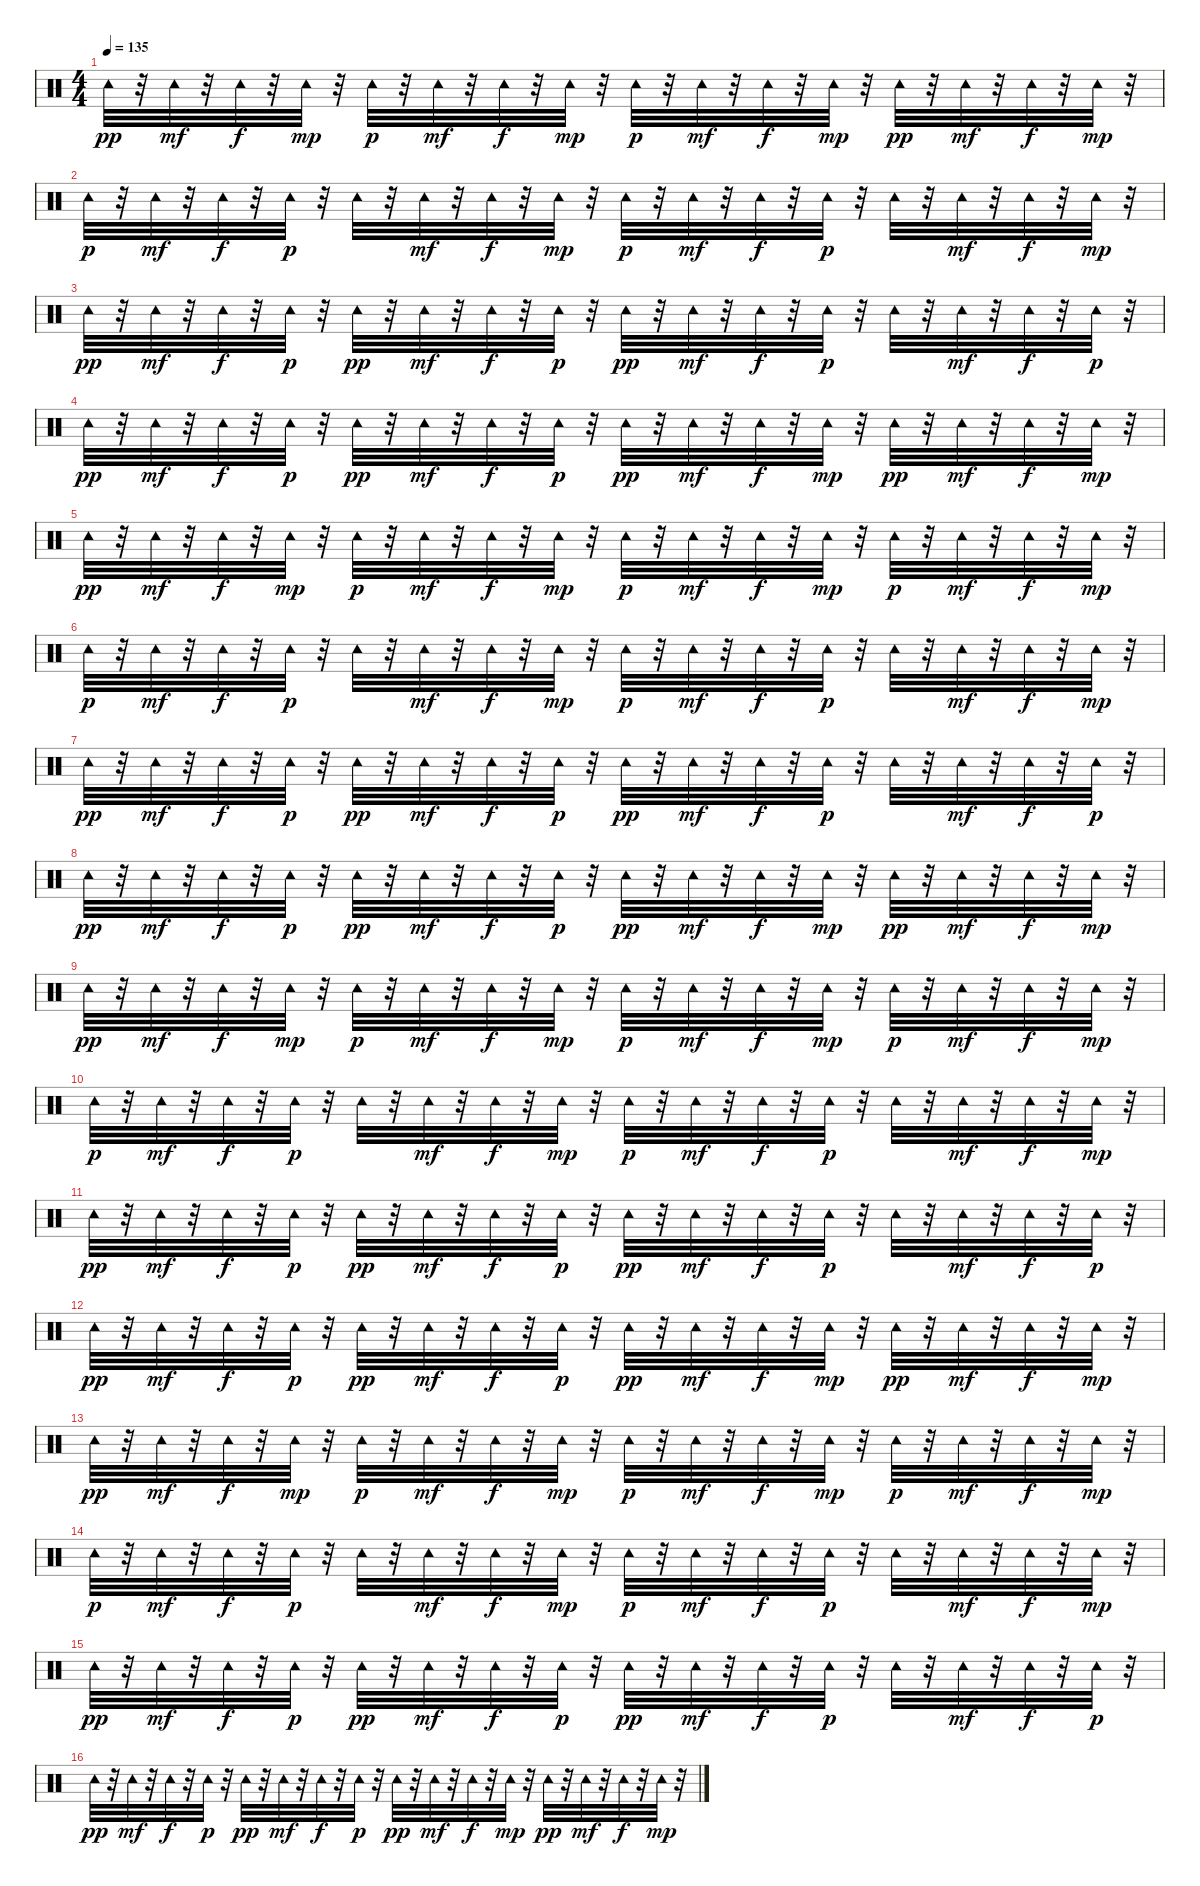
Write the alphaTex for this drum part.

\track "" {instrument percussion}
\staff {score}
\articulation defaults
\ts (4 4)
\tempo 135
\clef neutral
\ks c "Tambourine (hit)".32{dy pp}
r.32 "Tambourine (hit)".32{dy mf} r.32 "Tambourine (hit)".32{dy f} r.32 "Tambourine (hit)".32{dy mp} r.32 "Tambourine (hit)".32{dy p} r.32 "Tambourine (hit)".32{dy mf} r.32 "Tambourine (hit)".32{dy f} r.32 "Tambourine (hit)".32{dy mp} r.32 "Tambourine (hit)".32{dy p} r.32 "Tambourine (hit)".32{dy mf} r.32 "Tambourine (hit)".32{dy f} r.32 "Tambourine (hit)".32{dy mp} r.32 "Tambourine (hit)".32{dy pp} r.32 "Tambourine (hit)".32{dy mf} r.32 "Tambourine (hit)".32{dy f} r.32 "Tambourine (hit)".32{dy mp} r.32 |
"Tambourine (hit)".32{dy p} r.32 "Tambourine (hit)".32{dy mf} r.32 "Tambourine (hit)".32{dy f} r.32 "Tambourine (hit)".32{dy p} r.32 "Tambourine (hit)".32 r.32 "Tambourine (hit)".32{dy mf} r.32 "Tambourine (hit)".32{dy f} r.32 "Tambourine (hit)".32{dy mp} r.32 "Tambourine (hit)".32{dy p} r.32 "Tambourine (hit)".32{dy mf} r.32 "Tambourine (hit)".32{dy f} r.32 "Tambourine (hit)".32{dy p} r.32 "Tambourine (hit)".32 r.32 "Tambourine (hit)".32{dy mf} r.32 "Tambourine (hit)".32{dy f} r.32 "Tambourine (hit)".32{dy mp} r.32 |
"Tambourine (hit)".32{dy pp} r.32 "Tambourine (hit)".32{dy mf} r.32 "Tambourine (hit)".32{dy f} r.32 "Tambourine (hit)".32{dy p} r.32 "Tambourine (hit)".32{dy pp} r.32 "Tambourine (hit)".32{dy mf} r.32 "Tambourine (hit)".32{dy f} r.32 "Tambourine (hit)".32{dy p} r.32 "Tambourine (hit)".32{dy pp} r.32 "Tambourine (hit)".32{dy mf} r.32 "Tambourine (hit)".32{dy f} r.32 "Tambourine (hit)".32{dy p} r.32 "Tambourine (hit)".32 r.32 "Tambourine (hit)".32{dy mf} r.32 "Tambourine (hit)".32{dy f} r.32 "Tambourine (hit)".32{dy p} r.32 |
"Tambourine (hit)".32{dy pp} r.32 "Tambourine (hit)".32{dy mf} r.32 "Tambourine (hit)".32{dy f} r.32 "Tambourine (hit)".32{dy p} r.32 "Tambourine (hit)".32{dy pp} r.32 "Tambourine (hit)".32{dy mf} r.32 "Tambourine (hit)".32{dy f} r.32 "Tambourine (hit)".32{dy p} r.32 "Tambourine (hit)".32{dy pp} r.32 "Tambourine (hit)".32{dy mf} r.32 "Tambourine (hit)".32{dy f} r.32 "Tambourine (hit)".32{dy mp} r.32 "Tambourine (hit)".32{dy pp} r.32 "Tambourine (hit)".32{dy mf} r.32 "Tambourine (hit)".32{dy f} r.32 "Tambourine (hit)".32{dy mp} r.32 |
"Tambourine (hit)".32{dy pp} r.32 "Tambourine (hit)".32{dy mf} r.32 "Tambourine (hit)".32{dy f} r.32 "Tambourine (hit)".32{dy mp} r.32 "Tambourine (hit)".32{dy p} r.32 "Tambourine (hit)".32{dy mf} r.32 "Tambourine (hit)".32{dy f} r.32 "Tambourine (hit)".32{dy mp} r.32 "Tambourine (hit)".32{dy p} r.32 "Tambourine (hit)".32{dy mf} r.32 "Tambourine (hit)".32{dy f} r.32 "Tambourine (hit)".32{dy mp} r.32 "Tambourine (hit)".32{dy p} r.32 "Tambourine (hit)".32{dy mf} r.32 "Tambourine (hit)".32{dy f} r.32 "Tambourine (hit)".32{dy mp} r.32 |
"Tambourine (hit)".32{dy p} r.32 "Tambourine (hit)".32{dy mf} r.32 "Tambourine (hit)".32{dy f} r.32 "Tambourine (hit)".32{dy p} r.32 "Tambourine (hit)".32 r.32 "Tambourine (hit)".32{dy mf} r.32 "Tambourine (hit)".32{dy f} r.32 "Tambourine (hit)".32{dy mp} r.32 "Tambourine (hit)".32{dy p} r.32 "Tambourine (hit)".32{dy mf} r.32 "Tambourine (hit)".32{dy f} r.32 "Tambourine (hit)".32{dy p} r.32 "Tambourine (hit)".32 r.32 "Tambourine (hit)".32{dy mf} r.32 "Tambourine (hit)".32{dy f} r.32 "Tambourine (hit)".32{dy mp} r.32 |
"Tambourine (hit)".32{dy pp} r.32 "Tambourine (hit)".32{dy mf} r.32 "Tambourine (hit)".32{dy f} r.32 "Tambourine (hit)".32{dy p} r.32 "Tambourine (hit)".32{dy pp} r.32 "Tambourine (hit)".32{dy mf} r.32 "Tambourine (hit)".32{dy f} r.32 "Tambourine (hit)".32{dy p} r.32 "Tambourine (hit)".32{dy pp} r.32 "Tambourine (hit)".32{dy mf} r.32 "Tambourine (hit)".32{dy f} r.32 "Tambourine (hit)".32{dy p} r.32 "Tambourine (hit)".32 r.32 "Tambourine (hit)".32{dy mf} r.32 "Tambourine (hit)".32{dy f} r.32 "Tambourine (hit)".32{dy p} r.32 |
"Tambourine (hit)".32{dy pp} r.32 "Tambourine (hit)".32{dy mf} r.32 "Tambourine (hit)".32{dy f} r.32 "Tambourine (hit)".32{dy p} r.32 "Tambourine (hit)".32{dy pp} r.32 "Tambourine (hit)".32{dy mf} r.32 "Tambourine (hit)".32{dy f} r.32 "Tambourine (hit)".32{dy p} r.32 "Tambourine (hit)".32{dy pp} r.32 "Tambourine (hit)".32{dy mf} r.32 "Tambourine (hit)".32{dy f} r.32 "Tambourine (hit)".32{dy mp} r.32 "Tambourine (hit)".32{dy pp} r.32 "Tambourine (hit)".32{dy mf} r.32 "Tambourine (hit)".32{dy f} r.32 "Tambourine (hit)".32{dy mp} r.32 |
"Tambourine (hit)".32{dy pp} r.32 "Tambourine (hit)".32{dy mf} r.32 "Tambourine (hit)".32{dy f} r.32 "Tambourine (hit)".32{dy mp} r.32 "Tambourine (hit)".32{dy p} r.32 "Tambourine (hit)".32{dy mf} r.32 "Tambourine (hit)".32{dy f} r.32 "Tambourine (hit)".32{dy mp} r.32 "Tambourine (hit)".32{dy p} r.32 "Tambourine (hit)".32{dy mf} r.32 "Tambourine (hit)".32{dy f} r.32 "Tambourine (hit)".32{dy mp} r.32 "Tambourine (hit)".32{dy p} r.32 "Tambourine (hit)".32{dy mf} r.32 "Tambourine (hit)".32{dy f} r.32 "Tambourine (hit)".32{dy mp} r.32 |
"Tambourine (hit)".32{dy p} r.32 "Tambourine (hit)".32{dy mf} r.32 "Tambourine (hit)".32{dy f} r.32 "Tambourine (hit)".32{dy p} r.32 "Tambourine (hit)".32 r.32 "Tambourine (hit)".32{dy mf} r.32 "Tambourine (hit)".32{dy f} r.32 "Tambourine (hit)".32{dy mp} r.32 "Tambourine (hit)".32{dy p} r.32 "Tambourine (hit)".32{dy mf} r.32 "Tambourine (hit)".32{dy f} r.32 "Tambourine (hit)".32{dy p} r.32 "Tambourine (hit)".32 r.32 "Tambourine (hit)".32{dy mf} r.32 "Tambourine (hit)".32{dy f} r.32 "Tambourine (hit)".32{dy mp} r.32 |
"Tambourine (hit)".32{dy pp} r.32 "Tambourine (hit)".32{dy mf} r.32 "Tambourine (hit)".32{dy f} r.32 "Tambourine (hit)".32{dy p} r.32 "Tambourine (hit)".32{dy pp} r.32 "Tambourine (hit)".32{dy mf} r.32 "Tambourine (hit)".32{dy f} r.32 "Tambourine (hit)".32{dy p} r.32 "Tambourine (hit)".32{dy pp} r.32 "Tambourine (hit)".32{dy mf} r.32 "Tambourine (hit)".32{dy f} r.32 "Tambourine (hit)".32{dy p} r.32 "Tambourine (hit)".32 r.32 "Tambourine (hit)".32{dy mf} r.32 "Tambourine (hit)".32{dy f} r.32 "Tambourine (hit)".32{dy p} r.32 |
"Tambourine (hit)".32{dy pp} r.32 "Tambourine (hit)".32{dy mf} r.32 "Tambourine (hit)".32{dy f} r.32 "Tambourine (hit)".32{dy p} r.32 "Tambourine (hit)".32{dy pp} r.32 "Tambourine (hit)".32{dy mf} r.32 "Tambourine (hit)".32{dy f} r.32 "Tambourine (hit)".32{dy p} r.32 "Tambourine (hit)".32{dy pp} r.32 "Tambourine (hit)".32{dy mf} r.32 "Tambourine (hit)".32{dy f} r.32 "Tambourine (hit)".32{dy mp} r.32 "Tambourine (hit)".32{dy pp} r.32 "Tambourine (hit)".32{dy mf} r.32 "Tambourine (hit)".32{dy f} r.32 "Tambourine (hit)".32{dy mp} r.32 |
"Tambourine (hit)".32{dy pp} r.32 "Tambourine (hit)".32{dy mf} r.32 "Tambourine (hit)".32{dy f} r.32 "Tambourine (hit)".32{dy mp} r.32 "Tambourine (hit)".32{dy p} r.32 "Tambourine (hit)".32{dy mf} r.32 "Tambourine (hit)".32{dy f} r.32 "Tambourine (hit)".32{dy mp} r.32 "Tambourine (hit)".32{dy p} r.32 "Tambourine (hit)".32{dy mf} r.32 "Tambourine (hit)".32{dy f} r.32 "Tambourine (hit)".32{dy mp} r.32 "Tambourine (hit)".32{dy p} r.32 "Tambourine (hit)".32{dy mf} r.32 "Tambourine (hit)".32{dy f} r.32 "Tambourine (hit)".32{dy mp} r.32 |
"Tambourine (hit)".32{dy p} r.32 "Tambourine (hit)".32{dy mf} r.32 "Tambourine (hit)".32{dy f} r.32 "Tambourine (hit)".32{dy p} r.32 "Tambourine (hit)".32 r.32 "Tambourine (hit)".32{dy mf} r.32 "Tambourine (hit)".32{dy f} r.32 "Tambourine (hit)".32{dy mp} r.32 "Tambourine (hit)".32{dy p} r.32 "Tambourine (hit)".32{dy mf} r.32 "Tambourine (hit)".32{dy f} r.32 "Tambourine (hit)".32{dy p} r.32 "Tambourine (hit)".32 r.32 "Tambourine (hit)".32{dy mf} r.32 "Tambourine (hit)".32{dy f} r.32 "Tambourine (hit)".32{dy mp} r.32 |
"Tambourine (hit)".32{dy pp} r.32 "Tambourine (hit)".32{dy mf} r.32 "Tambourine (hit)".32{dy f} r.32 "Tambourine (hit)".32{dy p} r.32 "Tambourine (hit)".32{dy pp} r.32 "Tambourine (hit)".32{dy mf} r.32 "Tambourine (hit)".32{dy f} r.32 "Tambourine (hit)".32{dy p} r.32 "Tambourine (hit)".32{dy pp} r.32 "Tambourine (hit)".32{dy mf} r.32 "Tambourine (hit)".32{dy f} r.32 "Tambourine (hit)".32{dy p} r.32 "Tambourine (hit)".32 r.32 "Tambourine (hit)".32{dy mf} r.32 "Tambourine (hit)".32{dy f} r.32 "Tambourine (hit)".32{dy p} r.32 |
"Tambourine (hit)".32{dy pp} r.32 "Tambourine (hit)".32{dy mf} r.32 "Tambourine (hit)".32{dy f} r.32 "Tambourine (hit)".32{dy p} r.32 "Tambourine (hit)".32{dy pp} r.32 "Tambourine (hit)".32{dy mf} r.32 "Tambourine (hit)".32{dy f} r.32 "Tambourine (hit)".32{dy p} r.32 "Tambourine (hit)".32{dy pp} r.32 "Tambourine (hit)".32{dy mf} r.32 "Tambourine (hit)".32{dy f} r.32 "Tambourine (hit)".32{dy mp} r.32 "Tambourine (hit)".32{dy pp} r.32 "Tambourine (hit)".32{dy mf} r.32 "Tambourine (hit)".32{dy f} r.32 "Tambourine (hit)".32{dy mp} r.32
